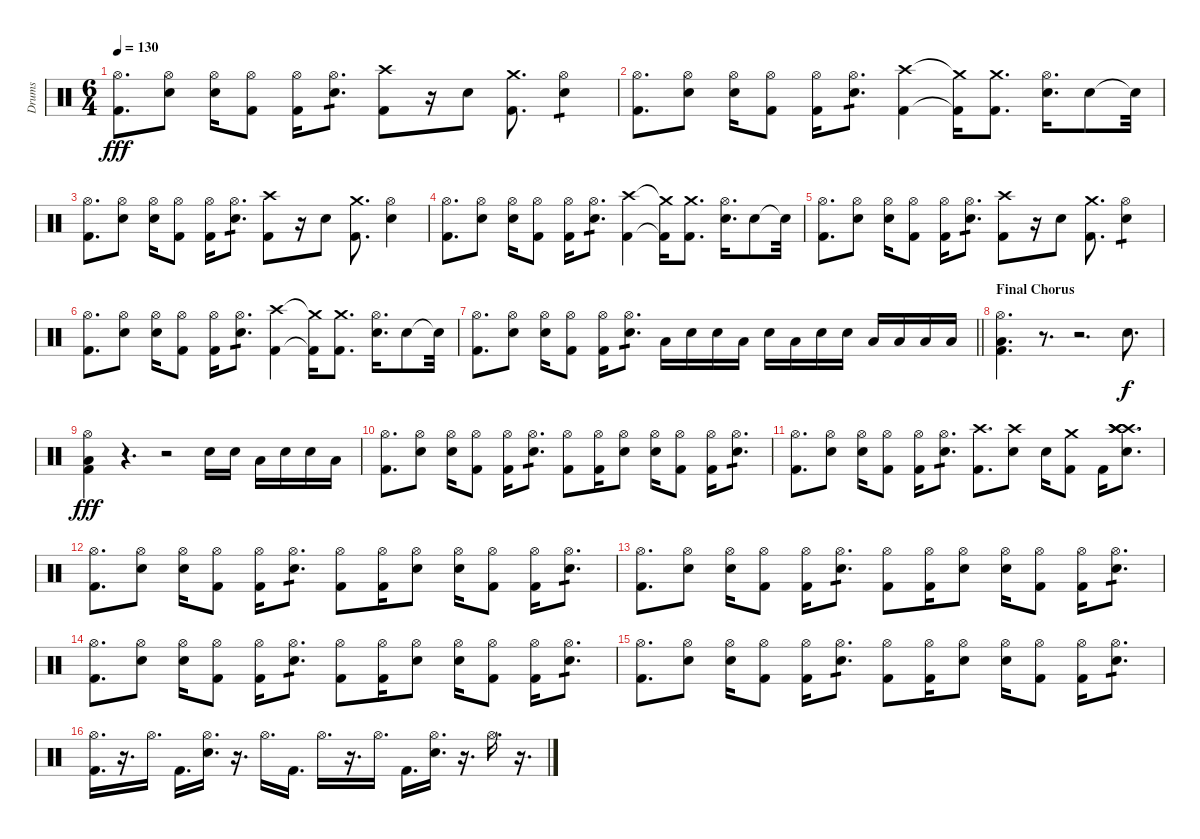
\track ("Drums" "Drums") {instrument percussion}
\staff {score}
\articulation defaults
\ts (6 4)
\tempo 130
\clef neutral
\ks c
("Hi-Hat (open)" "Kick (hit) 2").8{d dy fff} ("Hi-Hat (open)" "Snare (hit) 2").8 ("Hi-Hat (open)" "Snare (hit) 2").16 ("Hi-Hat (open)" "Kick (hit) 2").8 ("Hi-Hat (open)" "Kick (hit) 2").16 ("Hi-Hat (open)" "Snare (hit) 2").8{d tp 1} ("Crash high (hit)" "Kick (hit) 2").8 r.16 "Snare (hit) 2".8 ("Crash medium (hit)" "Kick (hit) 2").8{d} ("Hi-Hat (open)" "Snare (hit) 2").4{tp 1} |
("Hi-Hat (open)" "Kick (hit) 2").8{d} ("Hi-Hat (open)" "Snare (hit) 2").8 ("Hi-Hat (open)" "Snare (hit) 2").16 ("Hi-Hat (open)" "Kick (hit) 2").8 ("Hi-Hat (open)" "Kick (hit) 2").16 ("Hi-Hat (open)" "Snare (hit) 2").8{d tp 1} ("Crash high (hit)" "Kick (hit) 2").4 ("Crash medium (hit)"{t} "Kick (hit) 2"{t}).16 ("Crash medium (hit)" "Kick (hit) 2").8{d} ("Hi-Hat (open)" "Snare (hit) 2").16{d} "Snare (hit) 2".8 "Snare (hit) 2"{t}.32 |
("Hi-Hat (open)" "Kick (hit) 2").8{d} ("Hi-Hat (open)" "Snare (hit) 2").8 ("Hi-Hat (open)" "Snare (hit) 2").16 ("Hi-Hat (open)" "Kick (hit) 2").8 ("Hi-Hat (open)" "Kick (hit) 2").16 ("Hi-Hat (open)" "Snare (hit) 2").8{d tp 1} ("Crash high (hit)" "Kick (hit) 2").8 r.16 "Snare (hit) 2".8 ("Crash medium (hit)" "Kick (hit) 2").8{d} ("Hi-Hat (open)" "Snare (hit) 2").4 |
("Hi-Hat (open)" "Kick (hit) 2").8{d} ("Hi-Hat (open)" "Snare (hit) 2").8 ("Hi-Hat (open)" "Snare (hit) 2").16 ("Hi-Hat (open)" "Kick (hit) 2").8 ("Hi-Hat (open)" "Kick (hit) 2").16 ("Hi-Hat (open)" "Snare (hit) 2").8{d tp 1} ("Crash high (hit)" "Kick (hit) 2").4 ("Crash medium (hit)"{t} "Kick (hit) 2"{t}).16 ("Crash medium (hit)" "Kick (hit) 2").8{d} ("Hi-Hat (open)" "Snare (hit) 2").16{d} "Snare (hit) 2".8 "Snare (hit) 2"{t}.32 |
("Hi-Hat (open)" "Kick (hit) 2").8{d} ("Hi-Hat (open)" "Snare (hit) 2").8 ("Hi-Hat (open)" "Snare (hit) 2").16 ("Hi-Hat (open)" "Kick (hit) 2").8 ("Hi-Hat (open)" "Kick (hit) 2").16 ("Hi-Hat (open)" "Snare (hit) 2").8{d tp 1} ("Crash high (hit)" "Kick (hit) 2").8 r.16 "Snare (hit) 2".8 ("Crash medium (hit)" "Kick (hit) 2").8{d} ("Hi-Hat (open)" "Snare (hit) 2").4{tp 1} |
("Hi-Hat (open)" "Kick (hit) 2").8{d} ("Hi-Hat (open)" "Snare (hit) 2").8 ("Hi-Hat (open)" "Snare (hit) 2").16 ("Hi-Hat (open)" "Kick (hit) 2").8 ("Hi-Hat (open)" "Kick (hit) 2").16 ("Hi-Hat (open)" "Snare (hit) 2").8{d tp 1} ("Crash high (hit)" "Kick (hit) 2").4 ("Crash medium (hit)"{t} "Kick (hit) 2"{t}).16 ("Crash medium (hit)" "Kick (hit) 2").8{d} ("Hi-Hat (open)" "Snare (hit) 2").16{d} "Snare (hit) 2".8 "Snare (hit) 2"{t}.32 |
\barLineRight lightlight
("Hi-Hat (open)" "Kick (hit) 2").8{d} ("Hi-Hat (open)" "Snare (hit) 2").8 ("Hi-Hat (open)" "Snare (hit) 2").16 ("Hi-Hat (open)" "Kick (hit) 2").8 ("Hi-Hat (open)" "Kick (hit) 2").16 ("Hi-Hat (open)" "Snare (hit) 2").8{d tp 1} "Low Tom (hit)".16 "Snare (hit) 2".16 "Snare (hit) 2".16 "Low Tom (hit)".16 "Snare (hit) 2".16 "Low Tom (hit)".16 "Snare (hit) 2".16 "Snare (hit) 2".16 "Low Tom (hit)".16 "Low Tom (hit)".16 "Low Tom (hit)".16 "Low Floor Tom (hit)".16 |
\section ("" "Final Chorus")
("Low Floor Tom (hit)" "Hi-Hat (open)" "Kick (hit) 2").4{d} r.8{d} r.2{d} "Snare (hit) 2".8{d dy f} |
("Hi-Hat (open)" "Low Floor Tom (hit)" "Kick (hit) 2").4{dy fff} r.4{d} r.2 "Snare (hit) 2".16 "Snare (hit) 2".16 "Low Tom (hit)".16 "Snare (hit) 2".16 "Snare (hit) 2".16 "Low Tom (hit)".16 |
("Hi-Hat (open)" "Kick (hit) 2").8{d} ("Hi-Hat (open)" "Snare (hit) 2").8 ("Hi-Hat (open)" "Snare (hit) 2").16 ("Hi-Hat (open)" "Kick (hit) 2").8 ("Hi-Hat (open)" "Kick (hit) 2").16 ("Hi-Hat (open)" "Snare (hit) 2").8{d tp 1} ("Hi-Hat (open)" "Kick (hit) 2").8 ("Hi-Hat (open)" "Kick (hit) 2").16 ("Hi-Hat (open)" "Snare (hit) 2").8 ("Hi-Hat (open)" "Snare (hit) 2").16 ("Hi-Hat (open)" "Kick (hit) 2").8 ("Hi-Hat (open)" "Kick (hit) 2").16 ("Hi-Hat (open)" "Snare (hit) 2").8{d tp 1} |
("Hi-Hat (open)" "Kick (hit) 2").8{d} ("Hi-Hat (open)" "Snare (hit) 2").8 ("Hi-Hat (open)" "Snare (hit) 2").16 ("Hi-Hat (open)" "Kick (hit) 2").8 ("Hi-Hat (open)" "Kick (hit) 2").16 ("Hi-Hat (open)" "Snare (hit) 2").8{d tp 1} ("Crash high (hit)" "Kick (hit) 2").8{d} ("Crash high (hit)" "Snare (hit) 2").8 "Snare (hit) 2".16 ("Crash medium (hit)" "Kick (hit) 2").8 "Kick (hit) 2".16 ("Crash high (hit)" "Crash high (hit)" "Crash high (hit)" "Crash high (hit)" "Snare (hit) 2").8{d} |
("Hi-Hat (open)" "Kick (hit) 2").8{d} ("Hi-Hat (open)" "Snare (hit) 2").8 ("Hi-Hat (open)" "Snare (hit) 2").16 ("Hi-Hat (open)" "Kick (hit) 2").8 ("Hi-Hat (open)" "Kick (hit) 2").16 ("Hi-Hat (open)" "Snare (hit) 2").8{d tp 1} ("Hi-Hat (open)" "Kick (hit) 2").8 ("Hi-Hat (open)" "Kick (hit) 2").16 ("Hi-Hat (open)" "Snare (hit) 2").8 ("Hi-Hat (open)" "Snare (hit) 2").16 ("Hi-Hat (open)" "Kick (hit) 2").8 ("Hi-Hat (open)" "Kick (hit) 2").16 ("Hi-Hat (open)" "Snare (hit) 2").8{d tp 1} |
("Hi-Hat (open)" "Kick (hit) 2").8{d} ("Hi-Hat (open)" "Snare (hit) 2").8 ("Hi-Hat (open)" "Snare (hit) 2").16 ("Hi-Hat (open)" "Kick (hit) 2").8 ("Hi-Hat (open)" "Kick (hit) 2").16 ("Hi-Hat (open)" "Snare (hit) 2").8{d tp 1} ("Hi-Hat (open)" "Kick (hit) 2").8 ("Hi-Hat (open)" "Kick (hit) 2").16 ("Hi-Hat (open)" "Snare (hit) 2").8 ("Hi-Hat (open)" "Snare (hit) 2").16 ("Hi-Hat (open)" "Kick (hit) 2").8 ("Hi-Hat (open)" "Kick (hit) 2").16 ("Hi-Hat (open)" "Snare (hit) 2").8{d tp 1} |
("Hi-Hat (open)" "Kick (hit) 2").8{d} ("Hi-Hat (open)" "Snare (hit) 2").8 ("Hi-Hat (open)" "Snare (hit) 2").16 ("Hi-Hat (open)" "Kick (hit) 2").8 ("Hi-Hat (open)" "Kick (hit) 2").16 ("Hi-Hat (open)" "Snare (hit) 2").8{d tp 1} ("Hi-Hat (open)" "Kick (hit) 2").8 ("Hi-Hat (open)" "Kick (hit) 2").16 ("Hi-Hat (open)" "Snare (hit) 2").8 ("Hi-Hat (open)" "Snare (hit) 2").16 ("Hi-Hat (open)" "Kick (hit) 2").8 ("Hi-Hat (open)" "Kick (hit) 2").16 ("Hi-Hat (open)" "Snare (hit) 2").8{d tp 1} |
("Hi-Hat (open)" "Kick (hit) 2").8{d} ("Hi-Hat (open)" "Snare (hit) 2").8 ("Hi-Hat (open)" "Snare (hit) 2").16 ("Hi-Hat (open)" "Kick (hit) 2").8 ("Hi-Hat (open)" "Kick (hit) 2").16 ("Hi-Hat (open)" "Snare (hit) 2").8{d tp 1} ("Hi-Hat (open)" "Kick (hit) 2").8 ("Hi-Hat (open)" "Kick (hit) 2").16 ("Hi-Hat (open)" "Snare (hit) 2").8 ("Hi-Hat (open)" "Snare (hit) 2").16 ("Hi-Hat (open)" "Kick (hit) 2").8 ("Hi-Hat (open)" "Kick (hit) 2").16 ("Hi-Hat (open)" "Snare (hit) 2").8{d tp 1} |
("Hi-Hat (open)" "Kick (hit) 2").16{d} r.16{d} "Hi-Hat (open)".16{d} "Kick (hit) 2".16{d} ("Hi-Hat (open)" "Snare (hit) 2").16{d} r.16{d} "Hi-Hat (open)".16{d} "Kick (hit) 2".16{d} "Hi-Hat (open)".16{d} r.16{d} "Hi-Hat (open)".16{d} "Kick (hit) 2".16{d} ("Hi-Hat (open)" "Snare (hit) 2").16{d} r.16{d} "Hi-Hat (open)".16{d} r.16{d}
